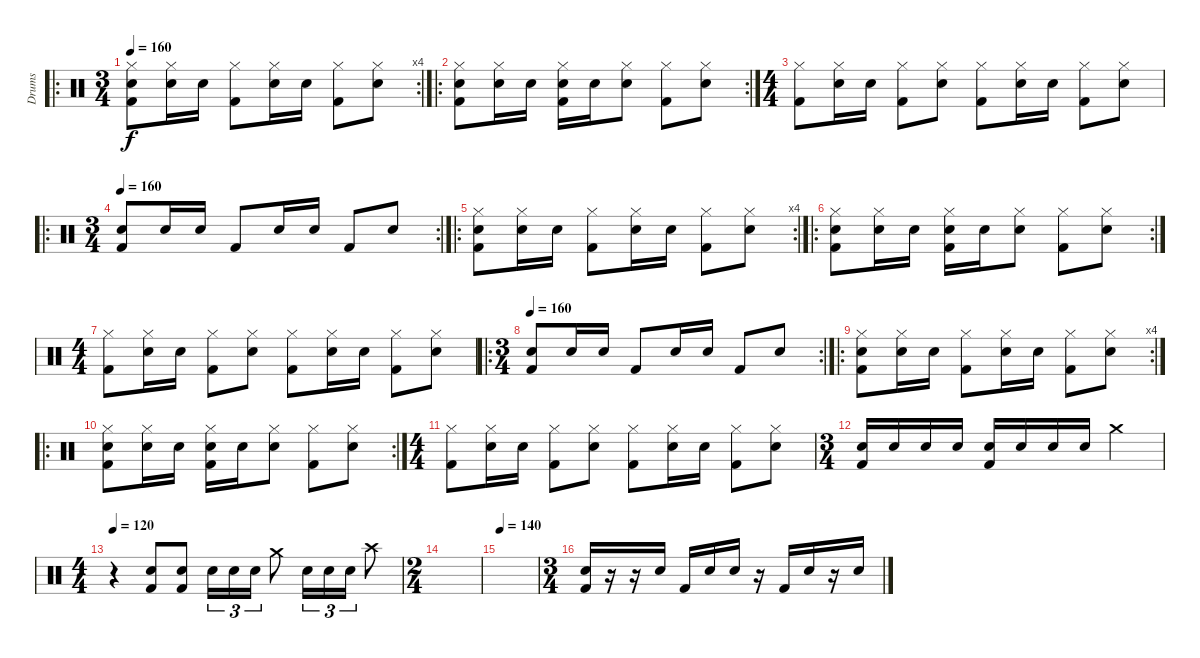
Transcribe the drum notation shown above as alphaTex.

\track ("Drums" "Drums") {instrument percussion}
\staff {score}
\articulation defaults
\ro
\rc 4
\ts (3 4)
\tempo 160
\clef neutral
\ks c
("Hi-Hat (closed)" "Snare (hit) 2" "Kick (hit) 2").8{dy f} ("Hi-Hat (closed)" "Snare (hit) 2").16 "Snare (hit) 2".16 ("Hi-Hat (closed)" "Kick (hit) 2").8 ("Hi-Hat (closed)" "Snare (hit) 2").16 "Snare (hit) 2".16 ("Hi-Hat (closed)" "Kick (hit) 2").8 ("Hi-Hat (closed)" "Snare (hit) 2").8 |
\ro
\rc 2
("Hi-Hat (closed)" "Snare (hit) 2" "Kick (hit) 2").8 ("Hi-Hat (closed)" "Snare (hit) 2").16 "Snare (hit) 2".16 ("Hi-Hat (closed)" "Snare (hit) 2" "Kick (hit) 2").16 "Snare (hit) 2".16 ("Hi-Hat (closed)" "Snare (hit) 2").8 ("Hi-Hat (closed)" "Kick (hit) 2").8 ("Hi-Hat (closed)" "Snare (hit) 2").8 |
\ts (4 4)
("Hi-Hat (closed)" "Kick (hit) 2").8 ("Hi-Hat (closed)" "Snare (hit) 2").16 "Snare (hit) 2".16 ("Hi-Hat (closed)" "Kick (hit) 2").8 ("Hi-Hat (closed)" "Snare (hit) 2").8 ("Hi-Hat (closed)" "Kick (hit) 2").8 ("Hi-Hat (closed)" "Snare (hit) 2").16 "Snare (hit) 2".16 ("Hi-Hat (closed)" "Kick (hit) 2").8 ("Hi-Hat (closed)" "Snare (hit) 2").8 |
\ro
\rc 2
\ts (3 4)
\tempo 160
("Snare (hit) 2" "Kick (hit) 2").8 "Snare (hit) 2".16 "Snare (hit) 2".16 "Kick (hit) 2".8 "Snare (hit) 2".16 "Snare (hit) 2".16 "Kick (hit) 2".8 "Snare (hit) 2".8 |
\ro
\rc 4
("Hi-Hat (closed)" "Snare (hit) 2" "Kick (hit) 2").8 ("Hi-Hat (closed)" "Snare (hit) 2").16 "Snare (hit) 2".16 ("Hi-Hat (closed)" "Kick (hit) 2").8 ("Hi-Hat (closed)" "Snare (hit) 2").16 "Snare (hit) 2".16 ("Hi-Hat (closed)" "Kick (hit) 2").8 ("Hi-Hat (closed)" "Snare (hit) 2").8 |
\ro
\rc 2
("Hi-Hat (closed)" "Snare (hit) 2" "Kick (hit) 2").8 ("Hi-Hat (closed)" "Snare (hit) 2").16 "Snare (hit) 2".16 ("Hi-Hat (closed)" "Snare (hit) 2" "Kick (hit) 2").16 "Snare (hit) 2".16 ("Hi-Hat (closed)" "Snare (hit) 2").8 ("Hi-Hat (closed)" "Kick (hit) 2").8 ("Hi-Hat (closed)" "Snare (hit) 2").8 |
\ts (4 4)
("Hi-Hat (closed)" "Kick (hit) 2").8 ("Hi-Hat (closed)" "Snare (hit) 2").16 "Snare (hit) 2".16 ("Hi-Hat (closed)" "Kick (hit) 2").8 ("Hi-Hat (closed)" "Snare (hit) 2").8 ("Hi-Hat (closed)" "Kick (hit) 2").8 ("Hi-Hat (closed)" "Snare (hit) 2").16 "Snare (hit) 2".16 ("Hi-Hat (closed)" "Kick (hit) 2").8 ("Hi-Hat (closed)" "Snare (hit) 2").8 |
\ro
\rc 2
\ts (3 4)
\tempo 160
("Snare (hit) 2" "Kick (hit) 2").8 "Snare (hit) 2".16 "Snare (hit) 2".16 "Kick (hit) 2".8 "Snare (hit) 2".16 "Snare (hit) 2".16 "Kick (hit) 2".8 "Snare (hit) 2".8 |
\ro
\rc 4
("Hi-Hat (closed)" "Snare (hit) 2" "Kick (hit) 2").8 ("Hi-Hat (closed)" "Snare (hit) 2").16 "Snare (hit) 2".16 ("Hi-Hat (closed)" "Kick (hit) 2").8 ("Hi-Hat (closed)" "Snare (hit) 2").16 "Snare (hit) 2".16 ("Hi-Hat (closed)" "Kick (hit) 2").8 ("Hi-Hat (closed)" "Snare (hit) 2").8 |
\ro
\rc 2
("Hi-Hat (closed)" "Snare (hit) 2" "Kick (hit) 2").8 ("Hi-Hat (closed)" "Snare (hit) 2").16 "Snare (hit) 2".16 ("Hi-Hat (closed)" "Snare (hit) 2" "Kick (hit) 2").16 "Snare (hit) 2".16 ("Hi-Hat (closed)" "Snare (hit) 2").8 ("Hi-Hat (closed)" "Kick (hit) 2").8 ("Hi-Hat (closed)" "Snare (hit) 2").8 |
\ts (4 4)
("Hi-Hat (closed)" "Kick (hit) 2").8 ("Hi-Hat (closed)" "Snare (hit) 2").16 "Snare (hit) 2".16 ("Hi-Hat (closed)" "Kick (hit) 2").8 ("Hi-Hat (closed)" "Snare (hit) 2").8 ("Hi-Hat (closed)" "Kick (hit) 2").8 ("Hi-Hat (closed)" "Snare (hit) 2").16 "Snare (hit) 2".16 ("Hi-Hat (closed)" "Kick (hit) 2").8 ("Hi-Hat (closed)" "Snare (hit) 2").8 |
\ts (3 4)
("Snare (hit) 2" "Kick (hit) 2").16 "Snare (hit) 2".16 "Snare (hit) 2".16 "Snare (hit) 2".16 ("Snare (hit) 2" "Kick (hit) 2").16 "Snare (hit) 2".16 "Snare (hit) 2".16 "Snare (hit) 2".16 "Crash medium (hit)".4 |
\ts (4 4)
\tempo 120
r.4 ("Snare (hit) 2" "Kick (hit) 2").8 ("Snare (hit) 2" "Kick (hit) 2").8 "Snare (hit) 2".16{tu (3 2)} "Snare (hit) 2".16{tu (3 2)} "Snare (hit) 2".16{tu (3 2)} "Crash medium (hit)".8 "Snare (hit) 2".16{tu (3 2)} "Snare (hit) 2".16{tu (3 2)} "Snare (hit) 2".16{tu (3 2)} "Crash high (hit)".8 |
\ts (2 4)
|
\tempo 140
|
\ts (3 4)
("Snare (hit) 2" "Kick (hit) 2").16 r.16 r.16 "Snare (hit) 2".16 "Kick (hit) 2".16 "Snare (hit) 2".16 "Snare (hit) 2".16 r.16 "Kick (hit) 2".16 "Snare (hit) 2".16 r.16 "Snare (hit) 2".16
